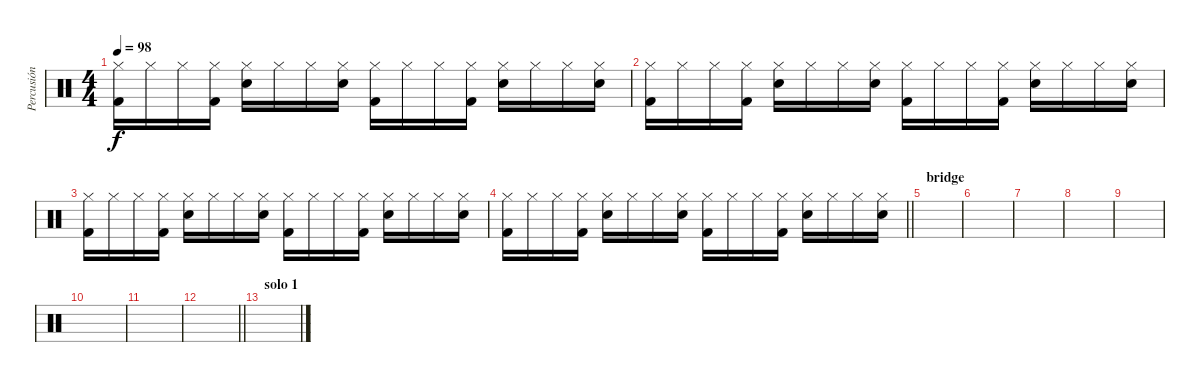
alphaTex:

\track ("Percusión" "Percusión") {instrument percussion}
\staff {score}
\articulation defaults
\ts (4 4)
\tempo 98
\clef neutral
\ks c
("Hi-Hat (closed)" "Kick (hit) 2").16{dy f} "Hi-Hat (closed)".16 "Hi-Hat (closed)".16 ("Hi-Hat (closed)" "Kick (hit) 2").16 ("Hi-Hat (closed)" "Snare (hit) 2").16 "Hi-Hat (closed)".16 "Hi-Hat (closed)".16 ("Hi-Hat (closed)" "Snare (hit) 2").16 ("Hi-Hat (closed)" "Kick (hit) 2").16 "Hi-Hat (closed)".16 "Hi-Hat (closed)".16 ("Hi-Hat (closed)" "Kick (hit) 2").16 ("Hi-Hat (closed)" "Snare (hit) 2").16 "Hi-Hat (closed)".16 "Hi-Hat (closed)".16 ("Hi-Hat (closed)" "Snare (hit) 2").16 |
("Hi-Hat (closed)" "Kick (hit) 2").16 "Hi-Hat (closed)".16 "Hi-Hat (closed)".16 ("Hi-Hat (closed)" "Kick (hit) 2").16 ("Hi-Hat (closed)" "Snare (hit) 2").16 "Hi-Hat (closed)".16 "Hi-Hat (closed)".16 ("Hi-Hat (closed)" "Snare (hit) 2").16 ("Hi-Hat (closed)" "Kick (hit) 2").16 "Hi-Hat (closed)".16 "Hi-Hat (closed)".16 ("Hi-Hat (closed)" "Kick (hit) 2").16 ("Hi-Hat (closed)" "Snare (hit) 2").16 "Hi-Hat (closed)".16 "Hi-Hat (closed)".16 ("Hi-Hat (closed)" "Snare (hit) 2").16 |
("Hi-Hat (closed)" "Kick (hit) 2").16 "Hi-Hat (closed)".16 "Hi-Hat (closed)".16 ("Hi-Hat (closed)" "Kick (hit) 2").16 ("Hi-Hat (closed)" "Snare (hit) 2").16 "Hi-Hat (closed)".16 "Hi-Hat (closed)".16 ("Hi-Hat (closed)" "Snare (hit) 2").16 ("Hi-Hat (closed)" "Kick (hit) 2").16 "Hi-Hat (closed)".16 "Hi-Hat (closed)".16 ("Hi-Hat (closed)" "Kick (hit) 2").16 ("Hi-Hat (closed)" "Snare (hit) 2").16 "Hi-Hat (closed)".16 "Hi-Hat (closed)".16 ("Hi-Hat (closed)" "Snare (hit) 2").16 |
\barLineRight lightlight
("Hi-Hat (closed)" "Kick (hit) 2").16 "Hi-Hat (closed)".16 "Hi-Hat (closed)".16 ("Hi-Hat (closed)" "Kick (hit) 2").16 ("Hi-Hat (closed)" "Snare (hit) 2").16 "Hi-Hat (closed)".16 "Hi-Hat (closed)".16 ("Hi-Hat (closed)" "Snare (hit) 2").16 ("Hi-Hat (closed)" "Kick (hit) 2").16 "Hi-Hat (closed)".16 "Hi-Hat (closed)".16 ("Hi-Hat (closed)" "Kick (hit) 2").16 ("Hi-Hat (closed)" "Snare (hit) 2").16 "Hi-Hat (closed)".16 "Hi-Hat (closed)".16 ("Hi-Hat (closed)" "Snare (hit) 2").16 |
\section ("" "bridge")
|
|
|
|
|
|
|
\barLineRight lightlight
|
\section ("" "solo 1")
